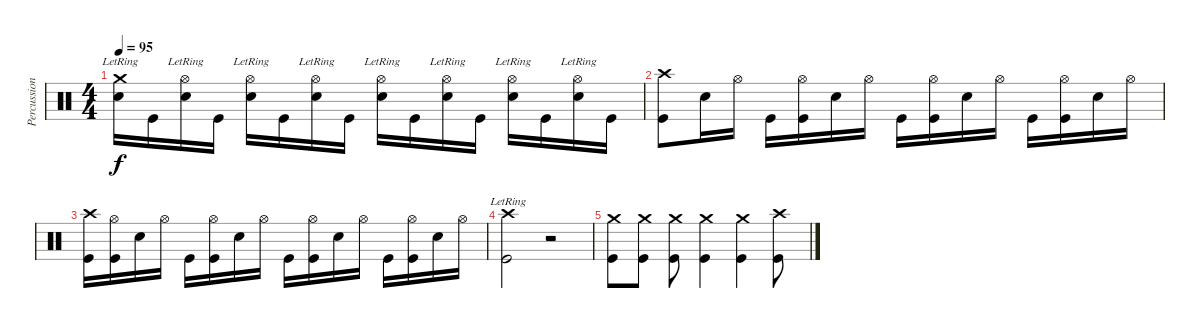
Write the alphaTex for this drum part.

\track ("Percussion" "Percussion") {instrument percussion}
\staff {score}
\articulation defaults
\ts (4 4)
\tempo 95
\clef neutral
\ks c
("Crash medium (hit)"{lr} "Snare (hit) 2").16{dy f} "Kick (hit)".16 ("Hi-Hat (open)"{lr} "Snare (hit) 2").16 "Kick (hit)".16 ("Hi-Hat (open)"{lr} "Snare (hit) 2").16 "Kick (hit)".16 ("Hi-Hat (open)"{lr} "Snare (hit) 2").16 "Kick (hit)".16 ("Hi-Hat (open)"{lr} "Snare (hit) 2").16 "Kick (hit)".16 ("Hi-Hat (open)"{lr} "Snare (hit) 2").16 "Kick (hit)".16 ("Hi-Hat (open)"{lr} "Snare (hit) 2").16 "Kick (hit)".16 ("Hi-Hat (open)"{lr} "Snare (hit) 2").16 "Kick (hit)".16 |
("Crash high (hit)" "Kick (hit)").8 "Snare (hit) 2".16 "Hi-Hat (open)".16 "Kick (hit)".16 ("Hi-Hat (open)" "Kick (hit)").16 "Snare (hit) 2".16 "Hi-Hat (open)".16 "Kick (hit)".16 ("Hi-Hat (open)" "Kick (hit)").16 "Snare (hit) 2".16 "Hi-Hat (open)".16 "Kick (hit)".16 ("Hi-Hat (open)" "Kick (hit)").16 "Snare (hit) 2".16 "Hi-Hat (open)".16 |
("Crash high (hit)" "Kick (hit)").16 ("Hi-Hat (open)" "Kick (hit)").16 "Snare (hit) 2".16 "Hi-Hat (open)".16 "Kick (hit)".16 ("Hi-Hat (open)" "Kick (hit)").16 "Snare (hit) 2".16 "Hi-Hat (open)".16 "Kick (hit)".16 ("Hi-Hat (open)" "Kick (hit)").16 "Snare (hit) 2".16 "Hi-Hat (open)".16 "Kick (hit)".16 ("Hi-Hat (open)" "Kick (hit)").16 "Snare (hit) 2".16 "Hi-Hat (open)".16 |
("Crash high (hit)"{lr} "Kick (hit)"{lr}).2 r.2 |
("Crash medium (hit)" "Kick (hit)").8 ("Crash medium (hit)" "Kick (hit)").8 ("Crash medium (hit)" "Kick (hit)").8 ("Crash medium (hit)" "Kick (hit)").4 ("Crash medium (hit)" "Kick (hit)").4 ("Crash high (hit)" "Kick (hit)").8
